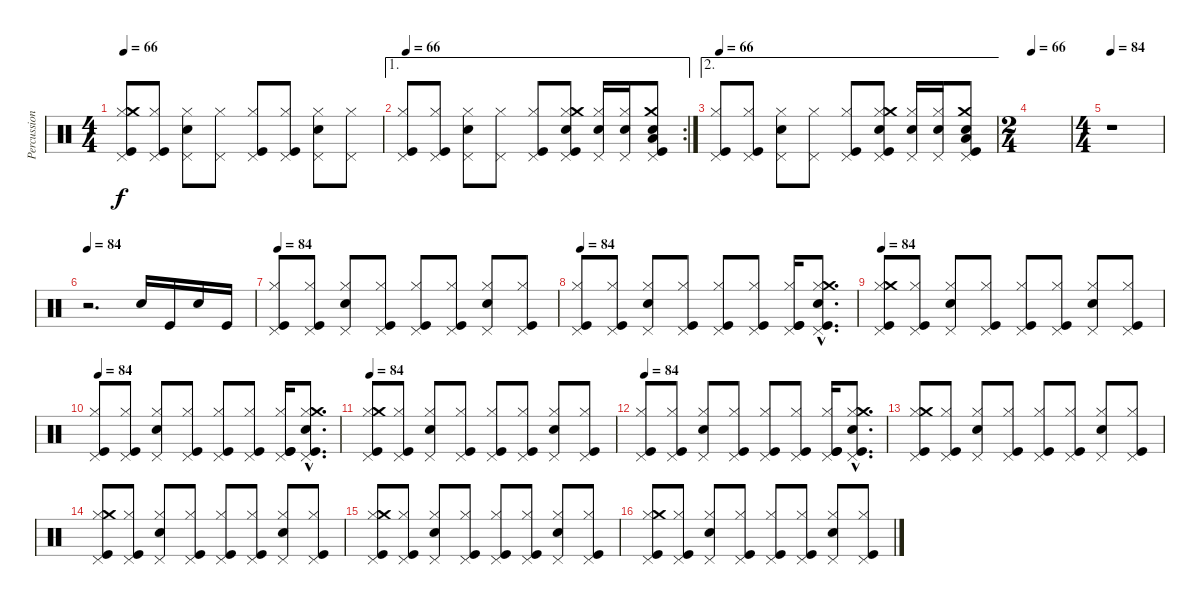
\track ("Percussion" "Percussion") {instrument percussion}
\staff {score}
\articulation defaults
\ts (4 4)
\tempo 66
\clef neutral
\ks c
("Pedal Hi-Hat (hit)" "Hi-Hat (closed)" "Crash medium (hit)" "Kick (hit)").8{dy f} ("Pedal Hi-Hat (hit)" "Hi-Hat (closed)" "Kick (hit)").8 ("Pedal Hi-Hat (hit)" "Hi-Hat (closed)" "Electric Snare (hit)").8 ("Pedal Hi-Hat (hit)" "Hi-Hat (closed)").8 ("Pedal Hi-Hat (hit)" "Hi-Hat (closed)" "Kick (hit)").8 ("Pedal Hi-Hat (hit)" "Hi-Hat (closed)" "Kick (hit)").8 ("Pedal Hi-Hat (hit)" "Hi-Hat (closed)" "Electric Snare (hit)").8 ("Pedal Hi-Hat (hit)" "Hi-Hat (closed)").8 |
\ae 1
\rc 2
\tempo 66
("Pedal Hi-Hat (hit)" "Hi-Hat (closed)" "Kick (hit)").8 ("Pedal Hi-Hat (hit)" "Hi-Hat (closed)" "Kick (hit)").8 ("Pedal Hi-Hat (hit)" "Hi-Hat (closed)" "Electric Snare (hit)").8 ("Pedal Hi-Hat (hit)" "Hi-Hat (closed)").8 ("Pedal Hi-Hat (hit)" "Hi-Hat (closed)" "Kick (hit)").8 ("Pedal Hi-Hat (hit)" "Hi-Hat (closed)" "Crash medium (hit)" "Electric Snare (hit)" "Kick (hit)").8 ("Pedal Hi-Hat (hit)" "Hi-Hat (closed)" "Electric Snare (hit)").16 ("Pedal Hi-Hat (hit)" "Hi-Hat (closed)" "Electric Snare (hit)").16 ("Pedal Hi-Hat (hit)" "Low Tom (hit)" "Crash medium (hit)" "Electric Snare (hit)" "Kick (hit)").8 |
\ae 2
\tempo 66
("Pedal Hi-Hat (hit)" "Hi-Hat (closed)" "Kick (hit)").8 ("Pedal Hi-Hat (hit)" "Hi-Hat (closed)" "Kick (hit)").8 ("Pedal Hi-Hat (hit)" "Hi-Hat (closed)" "Electric Snare (hit)").8 ("Pedal Hi-Hat (hit)" "Hi-Hat (closed)").8 ("Pedal Hi-Hat (hit)" "Hi-Hat (closed)" "Kick (hit)").8 ("Pedal Hi-Hat (hit)" "Hi-Hat (closed)" "Crash medium (hit)" "Electric Snare (hit)" "Kick (hit)").8 ("Pedal Hi-Hat (hit)" "Hi-Hat (closed)" "Electric Snare (hit)").16 ("Pedal Hi-Hat (hit)" "Hi-Hat (closed)" "Electric Snare (hit)").16 ("Pedal Hi-Hat (hit)" "Low Tom (hit)" "Crash medium (hit)" "Electric Snare (hit)" "Kick (hit)").8 |
\ts (2 4)
\tempo 66
|
\ts (4 4)
\tempo 84
r.1 |
\tempo 84
r.2{d} "Electric Snare (hit)".16 "Kick (hit)".16 "Electric Snare (hit)".16 "Kick (hit)".16 |
\tempo 84
("Pedal Hi-Hat (hit)" "Hi-Hat (closed)" "Kick (hit)").8 ("Pedal Hi-Hat (hit)" "Hi-Hat (closed)" "Kick (hit)").8 ("Pedal Hi-Hat (hit)" "Hi-Hat (closed)" "Electric Snare (hit)").8 ("Pedal Hi-Hat (hit)" "Hi-Hat (closed)" "Kick (hit)").8 ("Pedal Hi-Hat (hit)" "Hi-Hat (closed)" "Kick (hit)").8 ("Pedal Hi-Hat (hit)" "Hi-Hat (closed)" "Kick (hit)").8 ("Pedal Hi-Hat (hit)" "Hi-Hat (closed)" "Electric Snare (hit)").8 ("Pedal Hi-Hat (hit)" "Hi-Hat (closed)" "Kick (hit)").8 |
\tempo 84
("Pedal Hi-Hat (hit)" "Hi-Hat (closed)" "Kick (hit)").8 ("Pedal Hi-Hat (hit)" "Hi-Hat (closed)" "Kick (hit)").8 ("Pedal Hi-Hat (hit)" "Hi-Hat (closed)" "Electric Snare (hit)").8 ("Pedal Hi-Hat (hit)" "Hi-Hat (closed)" "Kick (hit)").8 ("Pedal Hi-Hat (hit)" "Hi-Hat (closed)" "Kick (hit)").8 ("Pedal Hi-Hat (hit)" "Hi-Hat (closed)" "Kick (hit)").8 ("Pedal Hi-Hat (hit)" "Hi-Hat (closed)" "Kick (hit)" "Kick (hit)").16 ("Pedal Hi-Hat (hit)"{hac} "Hi-Hat (closed)"{hac} "Crash medium (hit)"{hac} "Electric Snare (hit)"{hac} "Kick (hit)"{hac}).8{d} |
\tempo 84
("Pedal Hi-Hat (hit)" "Hi-Hat (closed)" "Crash medium (hit)" "Kick (hit)").8 ("Pedal Hi-Hat (hit)" "Hi-Hat (closed)" "Kick (hit)").8 ("Pedal Hi-Hat (hit)" "Hi-Hat (closed)" "Electric Snare (hit)").8 ("Pedal Hi-Hat (hit)" "Hi-Hat (closed)" "Kick (hit)").8 ("Pedal Hi-Hat (hit)" "Hi-Hat (closed)" "Kick (hit)").8 ("Pedal Hi-Hat (hit)" "Hi-Hat (closed)" "Kick (hit)").8 ("Pedal Hi-Hat (hit)" "Hi-Hat (closed)" "Electric Snare (hit)").8 ("Pedal Hi-Hat (hit)" "Hi-Hat (closed)" "Kick (hit)").8 |
\tempo 84
("Pedal Hi-Hat (hit)" "Hi-Hat (closed)" "Kick (hit)").8 ("Pedal Hi-Hat (hit)" "Hi-Hat (closed)" "Kick (hit)").8 ("Pedal Hi-Hat (hit)" "Hi-Hat (closed)" "Electric Snare (hit)").8 ("Pedal Hi-Hat (hit)" "Hi-Hat (closed)" "Kick (hit)").8 ("Pedal Hi-Hat (hit)" "Hi-Hat (closed)" "Kick (hit)").8 ("Pedal Hi-Hat (hit)" "Hi-Hat (closed)" "Kick (hit)").8 ("Pedal Hi-Hat (hit)" "Hi-Hat (closed)" "Kick (hit)" "Kick (hit)").16 ("Pedal Hi-Hat (hit)"{hac} "Hi-Hat (closed)"{hac} "Crash medium (hit)"{hac} "Electric Snare (hit)"{hac} "Kick (hit)"{hac}).8{d} |
\tempo 84
("Pedal Hi-Hat (hit)" "Hi-Hat (closed)" "Crash medium (hit)" "Kick (hit)").8 ("Pedal Hi-Hat (hit)" "Hi-Hat (closed)" "Kick (hit)").8 ("Pedal Hi-Hat (hit)" "Hi-Hat (closed)" "Electric Snare (hit)").8 ("Pedal Hi-Hat (hit)" "Hi-Hat (closed)" "Kick (hit)").8 ("Pedal Hi-Hat (hit)" "Hi-Hat (closed)" "Kick (hit)").8 ("Pedal Hi-Hat (hit)" "Hi-Hat (closed)" "Kick (hit)").8 ("Pedal Hi-Hat (hit)" "Hi-Hat (closed)" "Electric Snare (hit)").8 ("Pedal Hi-Hat (hit)" "Hi-Hat (closed)" "Kick (hit)").8 |
\tempo 84
("Pedal Hi-Hat (hit)" "Hi-Hat (closed)" "Kick (hit)").8 ("Pedal Hi-Hat (hit)" "Hi-Hat (closed)" "Kick (hit)").8 ("Pedal Hi-Hat (hit)" "Hi-Hat (closed)" "Electric Snare (hit)").8 ("Pedal Hi-Hat (hit)" "Hi-Hat (closed)" "Kick (hit)").8 ("Pedal Hi-Hat (hit)" "Hi-Hat (closed)" "Kick (hit)").8 ("Pedal Hi-Hat (hit)" "Hi-Hat (closed)" "Kick (hit)").8 ("Pedal Hi-Hat (hit)" "Hi-Hat (closed)" "Kick (hit)" "Kick (hit)").16 ("Pedal Hi-Hat (hit)"{hac} "Hi-Hat (closed)"{hac} "Crash medium (hit)"{hac} "Electric Snare (hit)"{hac} "Kick (hit)"{hac}).8{d} |
("Pedal Hi-Hat (hit)" "Hi-Hat (closed)" "Crash medium (hit)" "Kick (hit)").8 ("Pedal Hi-Hat (hit)" "Hi-Hat (closed)" "Kick (hit)").8 ("Pedal Hi-Hat (hit)" "Hi-Hat (closed)" "Electric Snare (hit)").8 ("Pedal Hi-Hat (hit)" "Hi-Hat (closed)" "Kick (hit)").8 ("Pedal Hi-Hat (hit)" "Hi-Hat (closed)" "Kick (hit)").8 ("Pedal Hi-Hat (hit)" "Hi-Hat (closed)" "Kick (hit)").8 ("Pedal Hi-Hat (hit)" "Hi-Hat (closed)" "Electric Snare (hit)").8 ("Pedal Hi-Hat (hit)" "Hi-Hat (closed)" "Kick (hit)").8 |
("Pedal Hi-Hat (hit)" "Hi-Hat (closed)" "Crash medium (hit)" "Kick (hit)").8 ("Pedal Hi-Hat (hit)" "Hi-Hat (closed)" "Kick (hit)").8 ("Pedal Hi-Hat (hit)" "Hi-Hat (closed)" "Electric Snare (hit)").8 ("Pedal Hi-Hat (hit)" "Hi-Hat (closed)" "Kick (hit)").8 ("Pedal Hi-Hat (hit)" "Hi-Hat (closed)" "Kick (hit)").8 ("Pedal Hi-Hat (hit)" "Hi-Hat (closed)" "Kick (hit)").8 ("Pedal Hi-Hat (hit)" "Hi-Hat (closed)" "Electric Snare (hit)").8 ("Pedal Hi-Hat (hit)" "Hi-Hat (closed)" "Kick (hit)").8 |
("Pedal Hi-Hat (hit)" "Hi-Hat (closed)" "Crash medium (hit)" "Kick (hit)").8 ("Pedal Hi-Hat (hit)" "Hi-Hat (closed)" "Kick (hit)").8 ("Pedal Hi-Hat (hit)" "Hi-Hat (closed)" "Electric Snare (hit)").8 ("Pedal Hi-Hat (hit)" "Hi-Hat (closed)" "Kick (hit)").8 ("Pedal Hi-Hat (hit)" "Hi-Hat (closed)" "Kick (hit)").8 ("Pedal Hi-Hat (hit)" "Hi-Hat (closed)" "Kick (hit)").8 ("Pedal Hi-Hat (hit)" "Hi-Hat (closed)" "Electric Snare (hit)").8 ("Pedal Hi-Hat (hit)" "Hi-Hat (closed)" "Kick (hit)").8 |
("Pedal Hi-Hat (hit)" "Hi-Hat (closed)" "Crash medium (hit)" "Kick (hit)").8 ("Pedal Hi-Hat (hit)" "Hi-Hat (closed)" "Kick (hit)").8 ("Pedal Hi-Hat (hit)" "Hi-Hat (closed)" "Electric Snare (hit)").8 ("Pedal Hi-Hat (hit)" "Hi-Hat (closed)" "Kick (hit)").8 ("Pedal Hi-Hat (hit)" "Hi-Hat (closed)" "Kick (hit)").8 ("Pedal Hi-Hat (hit)" "Hi-Hat (closed)" "Kick (hit)").8 ("Pedal Hi-Hat (hit)" "Hi-Hat (closed)" "Electric Snare (hit)").8 ("Pedal Hi-Hat (hit)" "Hi-Hat (closed)" "Kick (hit)").8
